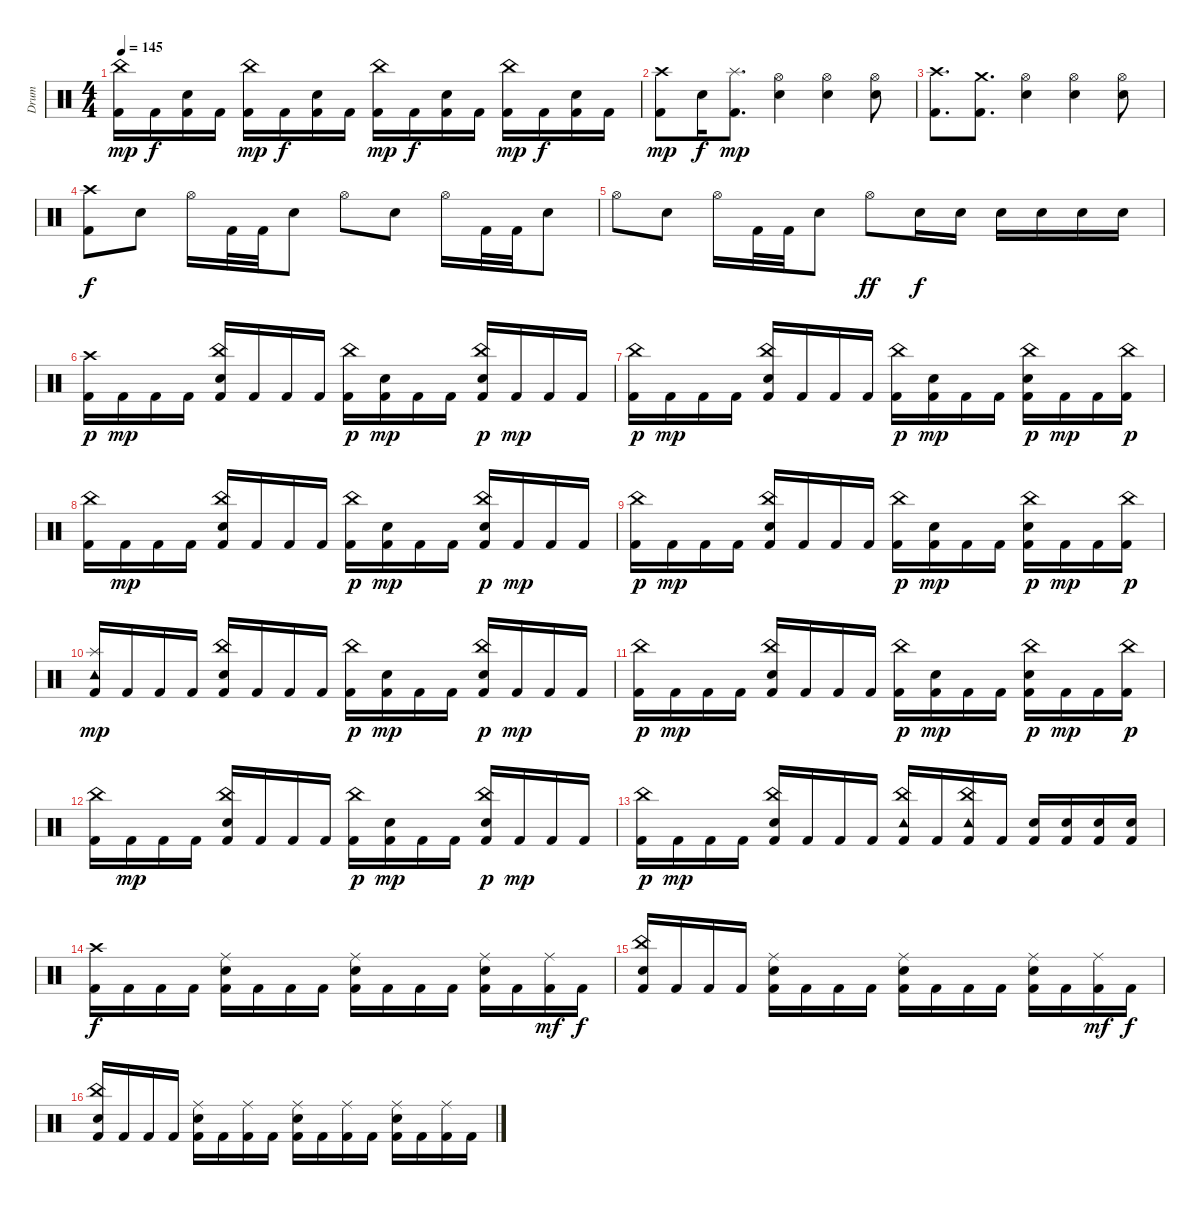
\track ("Drum" "Drum") {instrument percussion}
\staff {score}
\articulation defaults
\ts (4 4)
\tempo 145
\clef neutral
\ks c
("Kick (hit) 2" "China (hit)").16{dy mp} "Kick (hit) 2".16{dy f} ("Electric Snare (hit)" "Kick (hit) 2").16 "Kick (hit) 2".16 ("Kick (hit) 2" "China (hit)").16{dy mp} "Kick (hit) 2".16{dy f} ("Electric Snare (hit)" "Kick (hit) 2").16 "Kick (hit) 2".16 ("Kick (hit) 2" "China (hit)").16{dy mp} "Kick (hit) 2".16{dy f} ("Electric Snare (hit)" "Kick (hit) 2").16 "Kick (hit) 2".16 ("Kick (hit) 2" "China (hit)").16{dy mp} "Kick (hit) 2".16{dy f} ("Electric Snare (hit)" "Kick (hit) 2").16 "Kick (hit) 2".16 |
("Kick (hit) 2" "Crash high (hit)").8{dy mp} "Electric Snare (hit)".16{dy f} ("Splash (hit)" "Kick (hit) 2").8{d dy mp} ("Hi-Hat (open)" "Electric Snare (hit)").4 ("Hi-Hat (open)" "Electric Snare (hit)").4 ("Hi-Hat (open)" "Electric Snare (hit)").8 |
("Kick (hit) 2" "Crash high (hit)").8{d} ("Kick (hit) 2" "Crash medium (hit)").8{d} ("Hi-Hat (open)" "Electric Snare (hit)").4 ("Hi-Hat (open)" "Electric Snare (hit)").4 ("Hi-Hat (open)" "Electric Snare (hit)").8 |
("Kick (hit) 2" "Crash high (hit)").8{dy f} "Electric Snare (hit)".8 "Hi-Hat (open)".16 "Kick (hit) 2".32 "Kick (hit) 2".32 "Electric Snare (hit)".8 "Hi-Hat (open)".8 "Electric Snare (hit)".8 "Hi-Hat (open)".16 "Kick (hit) 2".32 "Kick (hit) 2".32 "Electric Snare (hit)".8 |
"Hi-Hat (open)".8 "Electric Snare (hit)".8 "Hi-Hat (open)".16 "Kick (hit) 2".32 "Kick (hit) 2".32 "Electric Snare (hit)".8 "Hi-Hat (open)".8{dy ff} "Electric Snare (hit)".16{dy f} "Electric Snare (hit)".16 "Electric Snare (hit)".16 "Electric Snare (hit)".16 "Electric Snare (hit)".16 "Electric Snare (hit)".16 |
("Kick (hit) 2" "Crash high (hit)").16{dy p} "Kick (hit) 2".16{dy mp} "Kick (hit) 2".16 "Kick (hit) 2".16 ("Kick (hit) 2" "China (hit)" "Electric Snare (hit)").16 "Kick (hit) 2".16 "Kick (hit) 2".16 "Kick (hit) 2".16 ("Kick (hit) 2" "China (hit)").16{dy p} ("Kick (hit) 2" "Electric Snare (hit)").16{dy mp} "Kick (hit) 2".16 "Kick (hit) 2".16 ("Kick (hit) 2" "Electric Snare (hit)" "China (hit)").16{dy p} "Kick (hit) 2".16{dy mp} "Kick (hit) 2".16 "Kick (hit) 2".16 |
("Kick (hit) 2" "China (hit)").16{dy p} "Kick (hit) 2".16{dy mp} "Kick (hit) 2".16 "Kick (hit) 2".16 ("Kick (hit) 2" "China (hit)" "Electric Snare (hit)").16 "Kick (hit) 2".16 "Kick (hit) 2".16 "Kick (hit) 2".16 ("Kick (hit) 2" "China (hit)").16{dy p} ("Kick (hit) 2" "Electric Snare (hit)").16{dy mp} "Kick (hit) 2".16 "Kick (hit) 2".16 ("Kick (hit) 2" "Electric Snare (hit)" "China (hit)").16{dy p} "Kick (hit) 2".16{dy mp} "Kick (hit) 2".16 ("Kick (hit) 2" "China (hit)").16{dy p} |
("Kick (hit) 2" "China (hit)").16 "Kick (hit) 2".16{dy mp} "Kick (hit) 2".16 "Kick (hit) 2".16 ("Kick (hit) 2" "China (hit)" "Electric Snare (hit)").16 "Kick (hit) 2".16 "Kick (hit) 2".16 "Kick (hit) 2".16 ("Kick (hit) 2" "China (hit)").16{dy p} ("Kick (hit) 2" "Electric Snare (hit)").16{dy mp} "Kick (hit) 2".16 "Kick (hit) 2".16 ("Kick (hit) 2" "Electric Snare (hit)" "China (hit)").16{dy p} "Kick (hit) 2".16{dy mp} "Kick (hit) 2".16 "Kick (hit) 2".16 |
("Kick (hit) 2" "China (hit)").16{dy p} "Kick (hit) 2".16{dy mp} "Kick (hit) 2".16 "Kick (hit) 2".16 ("Kick (hit) 2" "China (hit)" "Electric Snare (hit)").16 "Kick (hit) 2".16 "Kick (hit) 2".16 "Kick (hit) 2".16 ("Kick (hit) 2" "China (hit)").16{dy p} ("Kick (hit) 2" "Electric Snare (hit)").16{dy mp} "Kick (hit) 2".16 "Kick (hit) 2".16 ("Kick (hit) 2" "Electric Snare (hit)" "China (hit)").16{dy p} "Kick (hit) 2".16{dy mp} "Kick (hit) 2".16 ("Kick (hit) 2" "China (hit)").16{dy p} |
("Kick (hit) 2" "Splash (hit)" "Tambourine (hit)").16{dy mp} "Kick (hit) 2".16 "Kick (hit) 2".16 "Kick (hit) 2".16 ("Kick (hit) 2" "China (hit)" "Electric Snare (hit)").16 "Kick (hit) 2".16 "Kick (hit) 2".16 "Kick (hit) 2".16 ("Kick (hit) 2" "China (hit)").16{dy p} ("Kick (hit) 2" "Electric Snare (hit)").16{dy mp} "Kick (hit) 2".16 "Kick (hit) 2".16 ("Kick (hit) 2" "Electric Snare (hit)" "China (hit)").16{dy p} "Kick (hit) 2".16{dy mp} "Kick (hit) 2".16 "Kick (hit) 2".16 |
("Kick (hit) 2" "China (hit)").16{dy p} "Kick (hit) 2".16{dy mp} "Kick (hit) 2".16 "Kick (hit) 2".16 ("Kick (hit) 2" "China (hit)" "Electric Snare (hit)").16 "Kick (hit) 2".16 "Kick (hit) 2".16 "Kick (hit) 2".16 ("Kick (hit) 2" "China (hit)").16{dy p} ("Kick (hit) 2" "Electric Snare (hit)").16{dy mp} "Kick (hit) 2".16 "Kick (hit) 2".16 ("Kick (hit) 2" "Electric Snare (hit)" "China (hit)").16{dy p} "Kick (hit) 2".16{dy mp} "Kick (hit) 2".16 ("Kick (hit) 2" "China (hit)").16{dy p} |
("Kick (hit) 2" "China (hit)").16 "Kick (hit) 2".16{dy mp} "Kick (hit) 2".16 "Kick (hit) 2".16 ("Kick (hit) 2" "China (hit)" "Electric Snare (hit)").16 "Kick (hit) 2".16 "Kick (hit) 2".16 "Kick (hit) 2".16 ("Kick (hit) 2" "China (hit)").16{dy p} ("Kick (hit) 2" "Electric Snare (hit)").16{dy mp} "Kick (hit) 2".16 "Kick (hit) 2".16 ("Kick (hit) 2" "Electric Snare (hit)" "China (hit)").16{dy p} "Kick (hit) 2".16{dy mp} "Kick (hit) 2".16 "Kick (hit) 2".16 |
("Kick (hit) 2" "China (hit)").16{dy p} "Kick (hit) 2".16{dy mp} "Kick (hit) 2".16 "Kick (hit) 2".16 ("Kick (hit) 2" "China (hit)" "Electric Snare (hit)").16 "Kick (hit) 2".16 "Kick (hit) 2".16 "Kick (hit) 2".16 ("Kick (hit) 2" "China (hit)" "Tambourine (hit)").16 "Kick (hit) 2".16 ("Kick (hit) 2" "China (hit)" "Tambourine (hit)").16 "Kick (hit) 2".16 ("Kick (hit) 2" "Electric Snare (hit)").16 ("Kick (hit) 2" "Electric Snare (hit)").16 ("Kick (hit) 2" "Electric Snare (hit)").16 ("Kick (hit) 2" "Electric Snare (hit)").16 |
("Crash high (hit)" "Kick (hit) 2").16{dy f} "Kick (hit) 2".16 "Kick (hit) 2".16 "Kick (hit) 2".16 ("Kick (hit) 2" "Electric Snare (hit)" "Ride (middle)").16 "Kick (hit) 2".16 "Kick (hit) 2".16 "Kick (hit) 2".16 ("Kick (hit) 2" "Electric Snare (hit)" "Ride (middle)").16 "Kick (hit) 2".16 "Kick (hit) 2".16 "Kick (hit) 2".16 ("Kick (hit) 2" "Electric Snare (hit)" "Ride (middle)").16 "Kick (hit) 2".16 ("Kick (hit) 2" "Ride (middle)").16{dy mf} "Kick (hit) 2".16{dy f} |
("Kick (hit) 2" "Electric Snare (hit)" "China (hit)").16 "Kick (hit) 2".16 "Kick (hit) 2".16 "Kick (hit) 2".16 ("Kick (hit) 2" "Electric Snare (hit)" "Ride (middle)").16 "Kick (hit) 2".16 "Kick (hit) 2".16 "Kick (hit) 2".16 ("Kick (hit) 2" "Electric Snare (hit)" "Ride (middle)").16 "Kick (hit) 2".16 "Kick (hit) 2".16 "Kick (hit) 2".16 ("Kick (hit) 2" "Electric Snare (hit)" "Ride (middle)").16 "Kick (hit) 2".16 ("Kick (hit) 2" "Ride (middle)").16{dy mf} "Kick (hit) 2".16{dy f} |
("Kick (hit) 2" "Electric Snare (hit)" "China (hit)").16 "Kick (hit) 2".16 "Kick (hit) 2".16 "Kick (hit) 2".16 ("Kick (hit) 2" "Electric Snare (hit)" "Ride (middle)").16 "Kick (hit) 2".16 ("Kick (hit) 2" "Ride (middle)").16 "Kick (hit) 2".16 ("Kick (hit) 2" "Electric Snare (hit)" "Ride (middle)").16 "Kick (hit) 2".16 ("Kick (hit) 2" "Ride (middle)").16 "Kick (hit) 2".16 ("Kick (hit) 2" "Electric Snare (hit)" "Ride (middle)").16 "Kick (hit) 2".16 ("Kick (hit) 2" "Ride (middle)").16 "Kick (hit) 2".16
